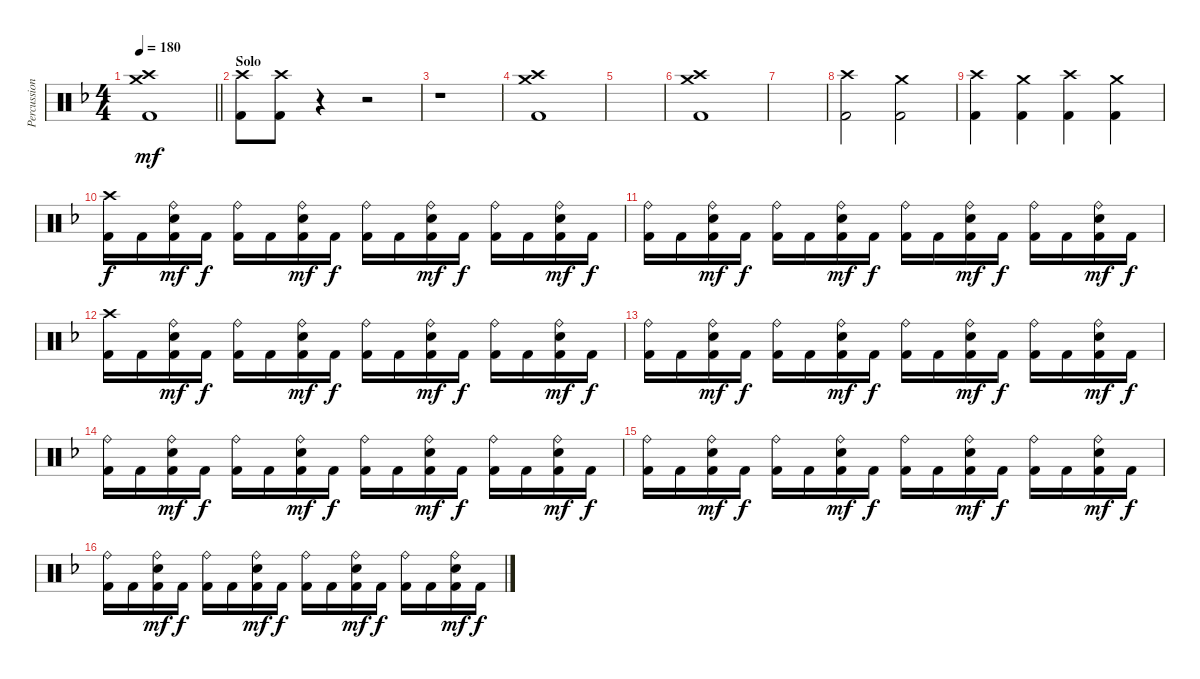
\track ("Percussion" "Percussion") {instrument percussion}
\staff {score}
\articulation defaults
\ts (4 4)
\tempo 180
\clef neutral
\barLineRight lightlight
\ks dminor
("Crash medium (hit)" "Crash high (hit)" "Kick (hit) 2").1{dy mf} |
\section ("" "Solo")
("Crash high (hit)" "Kick (hit) 2").8 ("Crash high (hit)" "Kick (hit) 2").8 r.4 r.2 |
r.1 |
("Crash medium (hit)" "Crash high (hit)" "Kick (hit) 2").1 |
|
("Crash medium (hit)" "Crash high (hit)" "Kick (hit) 2").1 |
|
("Crash high (hit)" "Kick (hit) 2").2 ("Crash medium (hit)" "Kick (hit) 2").2 |
("Crash high (hit)" "Kick (hit) 2").4 ("Crash medium (hit)" "Kick (hit) 2").4 ("Crash high (hit)" "Kick (hit) 2").4 ("Crash medium (hit)" "Kick (hit) 2").4 |
("Crash high (hit)" "Kick (hit) 2").16{dy f} "Kick (hit) 2".16 ("Ride (bell)" "Snare (hit) 2" "Kick (hit) 2").16{dy mf} "Kick (hit) 2".16{dy f} ("Ride (bell)" "Kick (hit) 2").16 "Kick (hit) 2".16 ("Ride (bell)" "Snare (hit) 2" "Kick (hit) 2").16{dy mf} "Kick (hit) 2".16{dy f} ("Ride (bell)" "Kick (hit) 2").16 "Kick (hit) 2".16 ("Ride (bell)" "Snare (hit) 2" "Kick (hit) 2").16{dy mf} "Kick (hit) 2".16{dy f} ("Ride (bell)" "Kick (hit) 2").16 "Kick (hit) 2".16 ("Ride (bell)" "Snare (hit) 2" "Kick (hit) 2").16{dy mf} "Kick (hit) 2".16{dy f} |
("Ride (bell)" "Kick (hit) 2").16 "Kick (hit) 2".16 ("Ride (bell)" "Snare (hit) 2" "Kick (hit) 2").16{dy mf} "Kick (hit) 2".16{dy f} ("Ride (bell)" "Kick (hit) 2").16 "Kick (hit) 2".16 ("Ride (bell)" "Snare (hit) 2" "Kick (hit) 2").16{dy mf} "Kick (hit) 2".16{dy f} ("Ride (bell)" "Kick (hit) 2").16 "Kick (hit) 2".16 ("Ride (bell)" "Snare (hit) 2" "Kick (hit) 2").16{dy mf} "Kick (hit) 2".16{dy f} ("Ride (bell)" "Kick (hit) 2").16 "Kick (hit) 2".16 ("Ride (bell)" "Snare (hit) 2" "Kick (hit) 2").16{dy mf} "Kick (hit) 2".16{dy f} |
("Crash high (hit)" "Kick (hit) 2").16 "Kick (hit) 2".16 ("Ride (bell)" "Snare (hit) 2" "Kick (hit) 2").16{dy mf} "Kick (hit) 2".16{dy f} ("Ride (bell)" "Kick (hit) 2").16 "Kick (hit) 2".16 ("Ride (bell)" "Snare (hit) 2" "Kick (hit) 2").16{dy mf} "Kick (hit) 2".16{dy f} ("Ride (bell)" "Kick (hit) 2").16 "Kick (hit) 2".16 ("Ride (bell)" "Snare (hit) 2" "Kick (hit) 2").16{dy mf} "Kick (hit) 2".16{dy f} ("Ride (bell)" "Kick (hit) 2").16 "Kick (hit) 2".16 ("Ride (bell)" "Snare (hit) 2" "Kick (hit) 2").16{dy mf} "Kick (hit) 2".16{dy f} |
("Ride (bell)" "Kick (hit) 2").16 "Kick (hit) 2".16 ("Ride (bell)" "Snare (hit) 2" "Kick (hit) 2").16{dy mf} "Kick (hit) 2".16{dy f} ("Ride (bell)" "Kick (hit) 2").16 "Kick (hit) 2".16 ("Ride (bell)" "Snare (hit) 2" "Kick (hit) 2").16{dy mf} "Kick (hit) 2".16{dy f} ("Ride (bell)" "Kick (hit) 2").16 "Kick (hit) 2".16 ("Ride (bell)" "Snare (hit) 2" "Kick (hit) 2").16{dy mf} "Kick (hit) 2".16{dy f} ("Ride (bell)" "Kick (hit) 2").16 "Kick (hit) 2".16 ("Ride (bell)" "Snare (hit) 2" "Kick (hit) 2").16{dy mf} "Kick (hit) 2".16{dy f} |
("Ride (bell)" "Kick (hit) 2").16 "Kick (hit) 2".16 ("Ride (bell)" "Snare (hit) 2" "Kick (hit) 2").16{dy mf} "Kick (hit) 2".16{dy f} ("Ride (bell)" "Kick (hit) 2").16 "Kick (hit) 2".16 ("Ride (bell)" "Snare (hit) 2" "Kick (hit) 2").16{dy mf} "Kick (hit) 2".16{dy f} ("Ride (bell)" "Kick (hit) 2").16 "Kick (hit) 2".16 ("Ride (bell)" "Snare (hit) 2" "Kick (hit) 2").16{dy mf} "Kick (hit) 2".16{dy f} ("Ride (bell)" "Kick (hit) 2").16 "Kick (hit) 2".16 ("Ride (bell)" "Snare (hit) 2" "Kick (hit) 2").16{dy mf} "Kick (hit) 2".16{dy f} |
("Ride (bell)" "Kick (hit) 2").16 "Kick (hit) 2".16 ("Ride (bell)" "Snare (hit) 2" "Kick (hit) 2").16{dy mf} "Kick (hit) 2".16{dy f} ("Ride (bell)" "Kick (hit) 2").16 "Kick (hit) 2".16 ("Ride (bell)" "Snare (hit) 2" "Kick (hit) 2").16{dy mf} "Kick (hit) 2".16{dy f} ("Ride (bell)" "Kick (hit) 2").16 "Kick (hit) 2".16 ("Ride (bell)" "Snare (hit) 2" "Kick (hit) 2").16{dy mf} "Kick (hit) 2".16{dy f} ("Ride (bell)" "Kick (hit) 2").16 "Kick (hit) 2".16 ("Ride (bell)" "Snare (hit) 2" "Kick (hit) 2").16{dy mf} "Kick (hit) 2".16{dy f} |
("Ride (bell)" "Kick (hit) 2").16 "Kick (hit) 2".16 ("Ride (bell)" "Snare (hit) 2" "Kick (hit) 2").16{dy mf} "Kick (hit) 2".16{dy f} ("Ride (bell)" "Kick (hit) 2").16 "Kick (hit) 2".16 ("Ride (bell)" "Snare (hit) 2" "Kick (hit) 2").16{dy mf} "Kick (hit) 2".16{dy f} ("Ride (bell)" "Kick (hit) 2").16 "Kick (hit) 2".16 ("Ride (bell)" "Snare (hit) 2" "Kick (hit) 2").16{dy mf} "Kick (hit) 2".16{dy f} ("Ride (bell)" "Kick (hit) 2").16 "Kick (hit) 2".16 ("Ride (bell)" "Snare (hit) 2" "Kick (hit) 2").16{dy mf} "Kick (hit) 2".16{dy f}
